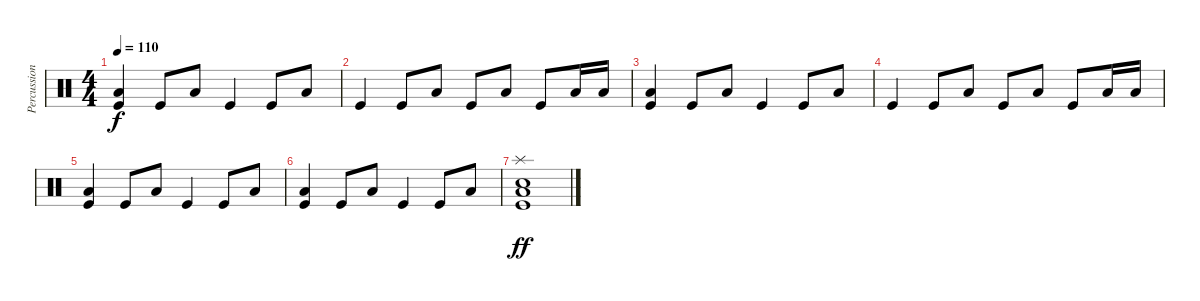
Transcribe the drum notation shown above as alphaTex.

\track ("Percussion" "Percussion") {instrument percussion}
\staff {score}
\articulation defaults
\ts (4 4)
\tempo 110
\clef neutral
\ks c
("Kick (hit)" "Low Floor Tom (hit)").4{dy f} "Kick (hit)".8 "Low Floor Tom (hit)".8 "Kick (hit)".4 "Kick (hit)".8 "Low Floor Tom (hit)".8 |
"Kick (hit)".4 "Kick (hit)".8 "Low Floor Tom (hit)".8 "Kick (hit)".8 "Low Floor Tom (hit)".8 "Kick (hit)".8 "Low Floor Tom (hit)".16 "Low Floor Tom (hit)".16 |
("Kick (hit)" "Low Floor Tom (hit)").4 "Kick (hit)".8 "Low Floor Tom (hit)".8 "Kick (hit)".4 "Kick (hit)".8 "Low Floor Tom (hit)".8 |
"Kick (hit)".4 "Kick (hit)".8 "Low Floor Tom (hit)".8 "Kick (hit)".8 "Low Floor Tom (hit)".8 "Kick (hit)".8 "Low Floor Tom (hit)".16 "Low Floor Tom (hit)".16 |
("Kick (hit)" "Low Floor Tom (hit)").4 "Kick (hit)".8 "Low Floor Tom (hit)".8 "Kick (hit)".4 "Kick (hit)".8 "Low Floor Tom (hit)".8 |
("Kick (hit)" "Low Floor Tom (hit)").4 "Kick (hit)".8 "Low Floor Tom (hit)".8 "Kick (hit)".4 "Kick (hit)".8 "Low Floor Tom (hit)".8 |
("Snare (hit) 2" "Kick (hit)" "Low Floor Tom (hit)" "Splash (hit)").1{dy ff}
